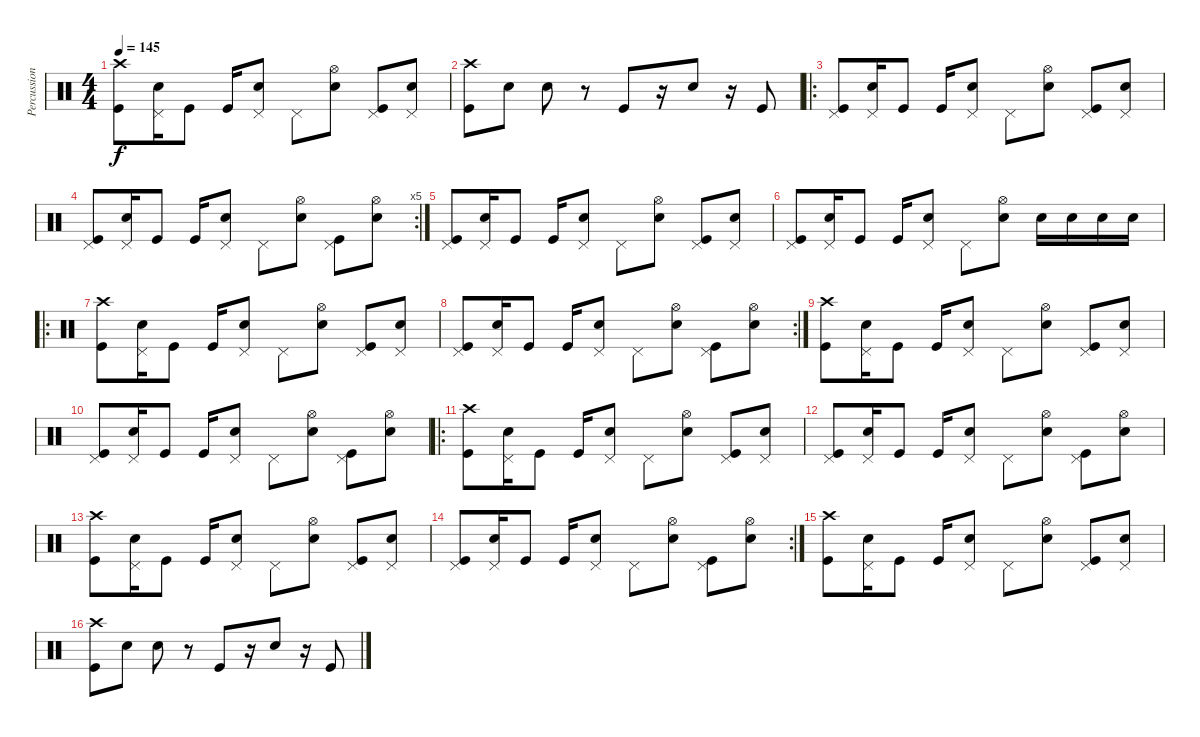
\track ("Percussion" "Percussion") {instrument percussion}
\staff {score}
\articulation defaults
\ts (4 4)
\tempo 145
\clef neutral
\ks c
("Crash high (hit)" "Kick (hit)").8{dy f} ("Pedal Hi-Hat (hit)" "Electric Snare (hit)").16 "Kick (hit)".8 "Kick (hit)".16 ("Pedal Hi-Hat (hit)" "Electric Snare (hit)").8 "Pedal Hi-Hat (hit)".8 ("Hi-Hat (open)" "Electric Snare (hit)").8 ("Pedal Hi-Hat (hit)" "Kick (hit)").8 ("Pedal Hi-Hat (hit)" "Electric Snare (hit)").8 |
("Crash high (hit)" "Kick (hit)").8 "Electric Snare (hit)".8 "Electric Snare (hit)".8 r.8 "Kick (hit)".8 r.16 "Electric Snare (hit)".8 r.16 "Kick (hit)".8 |
\ro
("Pedal Hi-Hat (hit)" "Kick (hit)").8 ("Pedal Hi-Hat (hit)" "Electric Snare (hit)").16 "Kick (hit)".8 "Kick (hit)".16 ("Pedal Hi-Hat (hit)" "Electric Snare (hit)").8 "Pedal Hi-Hat (hit)".8 ("Hi-Hat (open)" "Electric Snare (hit)").8 ("Pedal Hi-Hat (hit)" "Kick (hit)").8 ("Pedal Hi-Hat (hit)" "Electric Snare (hit)").8 |
\rc 5
("Pedal Hi-Hat (hit)" "Kick (hit)").8 ("Pedal Hi-Hat (hit)" "Electric Snare (hit)").16 "Kick (hit)".8 "Kick (hit)".16 ("Pedal Hi-Hat (hit)" "Electric Snare (hit)").8 "Pedal Hi-Hat (hit)".8 ("Hi-Hat (open)" "Electric Snare (hit)").8 ("Pedal Hi-Hat (hit)" "Kick (hit)").8 ("Hi-Hat (open)" "Electric Snare (hit)").8 |
("Pedal Hi-Hat (hit)" "Kick (hit)").8 ("Pedal Hi-Hat (hit)" "Electric Snare (hit)").16 "Kick (hit)".8 "Kick (hit)".16 ("Pedal Hi-Hat (hit)" "Electric Snare (hit)").8 "Pedal Hi-Hat (hit)".8 ("Hi-Hat (open)" "Electric Snare (hit)").8 ("Pedal Hi-Hat (hit)" "Kick (hit)").8 ("Pedal Hi-Hat (hit)" "Electric Snare (hit)").8 |
("Pedal Hi-Hat (hit)" "Kick (hit)").8 ("Pedal Hi-Hat (hit)" "Electric Snare (hit)").16 "Kick (hit)".8 "Kick (hit)".16 ("Pedal Hi-Hat (hit)" "Electric Snare (hit)").8 "Pedal Hi-Hat (hit)".8 ("Hi-Hat (open)" "Electric Snare (hit)").8 "Electric Snare (hit)".16 "Electric Snare (hit)".16 "Electric Snare (hit)".16 "Electric Snare (hit)".16 |
\ro
("Crash high (hit)" "Kick (hit)").8 ("Pedal Hi-Hat (hit)" "Electric Snare (hit)").16 "Kick (hit)".8 "Kick (hit)".16 ("Pedal Hi-Hat (hit)" "Electric Snare (hit)").8 "Pedal Hi-Hat (hit)".8 ("Hi-Hat (open)" "Electric Snare (hit)").8 ("Pedal Hi-Hat (hit)" "Kick (hit)").8 ("Pedal Hi-Hat (hit)" "Electric Snare (hit)").8 |
\rc 2
("Pedal Hi-Hat (hit)" "Kick (hit)").8 ("Pedal Hi-Hat (hit)" "Electric Snare (hit)").16 "Kick (hit)".8 "Kick (hit)".16 ("Pedal Hi-Hat (hit)" "Electric Snare (hit)").8 "Pedal Hi-Hat (hit)".8 ("Hi-Hat (open)" "Electric Snare (hit)").8 ("Pedal Hi-Hat (hit)" "Kick (hit)").8 ("Hi-Hat (open)" "Electric Snare (hit)").8 |
("Crash high (hit)" "Kick (hit)").8 ("Pedal Hi-Hat (hit)" "Electric Snare (hit)").16 "Kick (hit)".8 "Kick (hit)".16 ("Pedal Hi-Hat (hit)" "Electric Snare (hit)").8 "Pedal Hi-Hat (hit)".8 ("Hi-Hat (open)" "Electric Snare (hit)").8 ("Pedal Hi-Hat (hit)" "Kick (hit)").8 ("Pedal Hi-Hat (hit)" "Electric Snare (hit)").8 |
("Pedal Hi-Hat (hit)" "Kick (hit)").8 ("Pedal Hi-Hat (hit)" "Electric Snare (hit)").16 "Kick (hit)".8 "Kick (hit)".16 ("Pedal Hi-Hat (hit)" "Electric Snare (hit)").8 "Pedal Hi-Hat (hit)".8 ("Hi-Hat (open)" "Electric Snare (hit)").8 ("Pedal Hi-Hat (hit)" "Kick (hit)").8 ("Hi-Hat (open)" "Electric Snare (hit)").8 |
\ro
("Crash high (hit)" "Kick (hit)").8 ("Pedal Hi-Hat (hit)" "Electric Snare (hit)").16 "Kick (hit)".8 "Kick (hit)".16 ("Pedal Hi-Hat (hit)" "Electric Snare (hit)").8 "Pedal Hi-Hat (hit)".8 ("Hi-Hat (open)" "Electric Snare (hit)").8 ("Pedal Hi-Hat (hit)" "Kick (hit)").8 ("Pedal Hi-Hat (hit)" "Electric Snare (hit)").8 |
("Pedal Hi-Hat (hit)" "Kick (hit)").8 ("Pedal Hi-Hat (hit)" "Electric Snare (hit)").16 "Kick (hit)".8 "Kick (hit)".16 ("Pedal Hi-Hat (hit)" "Electric Snare (hit)").8 "Pedal Hi-Hat (hit)".8 ("Hi-Hat (open)" "Electric Snare (hit)").8 ("Pedal Hi-Hat (hit)" "Kick (hit)").8 ("Hi-Hat (open)" "Electric Snare (hit)").8 |
("Crash high (hit)" "Kick (hit)").8 ("Pedal Hi-Hat (hit)" "Electric Snare (hit)").16 "Kick (hit)".8 "Kick (hit)".16 ("Pedal Hi-Hat (hit)" "Electric Snare (hit)").8 "Pedal Hi-Hat (hit)".8 ("Hi-Hat (open)" "Electric Snare (hit)").8 ("Pedal Hi-Hat (hit)" "Kick (hit)").8 ("Pedal Hi-Hat (hit)" "Electric Snare (hit)").8 |
\rc 2
("Pedal Hi-Hat (hit)" "Kick (hit)").8 ("Pedal Hi-Hat (hit)" "Electric Snare (hit)").16 "Kick (hit)".8 "Kick (hit)".16 ("Pedal Hi-Hat (hit)" "Electric Snare (hit)").8 "Pedal Hi-Hat (hit)".8 ("Hi-Hat (open)" "Electric Snare (hit)").8 ("Pedal Hi-Hat (hit)" "Kick (hit)").8 ("Hi-Hat (open)" "Electric Snare (hit)").8 |
("Crash high (hit)" "Kick (hit)").8 ("Pedal Hi-Hat (hit)" "Electric Snare (hit)").16 "Kick (hit)".8 "Kick (hit)".16 ("Pedal Hi-Hat (hit)" "Electric Snare (hit)").8 "Pedal Hi-Hat (hit)".8 ("Hi-Hat (open)" "Electric Snare (hit)").8 ("Pedal Hi-Hat (hit)" "Kick (hit)").8 ("Pedal Hi-Hat (hit)" "Electric Snare (hit)").8 |
("Crash high (hit)" "Kick (hit)").8 "Electric Snare (hit)".8 "Electric Snare (hit)".8 r.8 "Kick (hit)".8 r.16 "Electric Snare (hit)".8 r.16 "Kick (hit)".8
